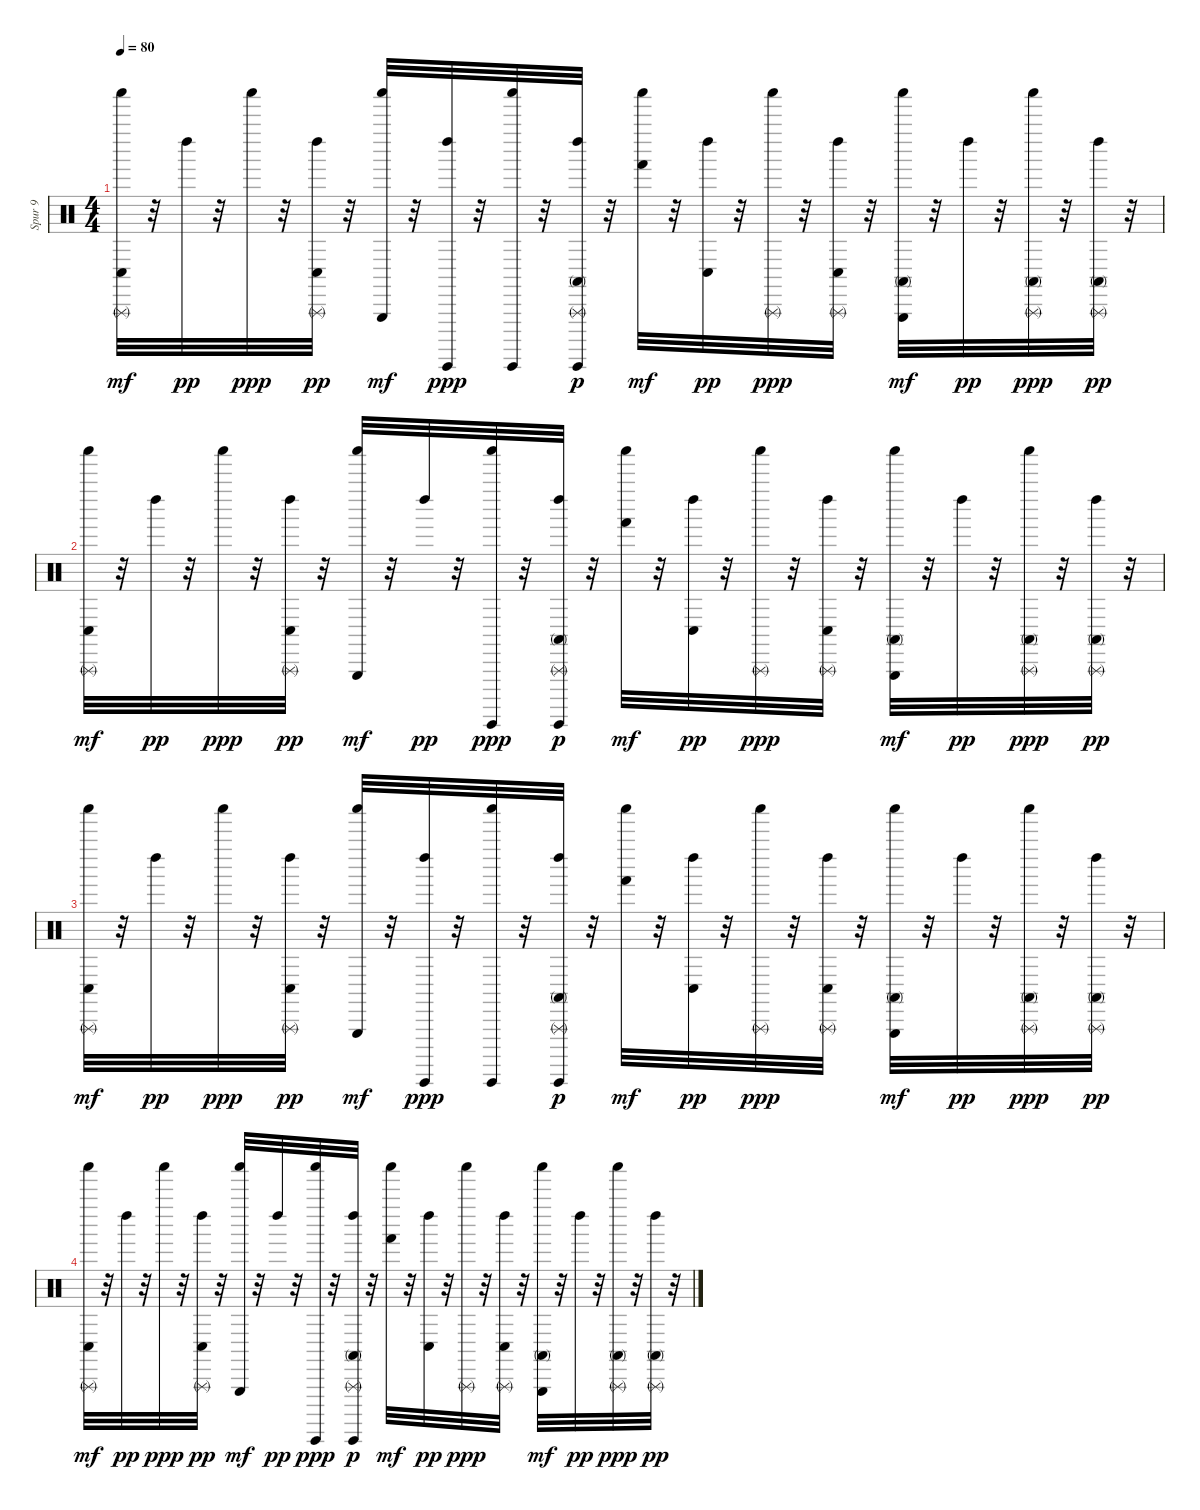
\track ("Spur 9" "Spur 9") {instrument percussion}
\staff {score}
\articulation defaults
\ts (4 4)
\tempo 80
\clef neutral
\ks c
("Conga low (hit)" "Triangle (rnute)" "Shaker (hit)").32{dy mf} r.32 "Left Maraca (hit)".32{dy pp} r.32 "Shaker (hit)".32{dy ppp} r.32 ("Conga low (hit)" "Left Maraca (hit)" "Triangle (rnute)").32{dy pp} r.32 ("Triangle (hit)" "Shaker (hit)").32{dy mf} r.32 ("Left Maraca (hit)" "Guiro (hit)").32{dy ppp} r.32 ("Guiro (hit)" "Shaker (hit)").32 r.32 ("Conga high (mute)" "Left Maraca (hit)" "Guiro (hit)" "Triangle (rnute)").32{dy p} r.32 ("Hand (hit)" "Shaker (hit)").32{dy mf} r.32 ("Conga low (hit)" "Left Maraca (hit)").32{dy pp} r.32 ("Triangle (rnute)" "Shaker (hit)").32{dy ppp} r.32 ("Conga low (hit)" "Left Maraca (hit)" "Triangle (rnute)").32 r.32 ("Conga high (mute)" "Triangle (hit)" "Shaker (hit)").32{dy mf} r.32 "Left Maraca (hit)".32{dy pp} r.32 ("Conga high (mute)" "Triangle (rnute)" "Shaker (hit)").32{dy ppp} r.32 ("Conga high (mute)" "Left Maraca (hit)" "Triangle (rnute)").32{dy pp} r.32 |
("Conga low (hit)" "Triangle (rnute)" "Shaker (hit)").32{dy mf} r.32 "Left Maraca (hit)".32{dy pp} r.32 "Shaker (hit)".32{dy ppp} r.32 ("Conga low (hit)" "Left Maraca (hit)" "Triangle (rnute)").32{dy pp} r.32 ("Triangle (hit)" "Shaker (hit)").32{dy mf} r.32 "Left Maraca (hit)".32{dy pp} r.32 ("Guiro (hit)" "Shaker (hit)").32{dy ppp} r.32 ("Conga high (mute)" "Left Maraca (hit)" "Guiro (hit)" "Triangle (rnute)").32{dy p} r.32 ("Hand (hit)" "Shaker (hit)").32{dy mf} r.32 ("Conga low (hit)" "Left Maraca (hit)").32{dy pp} r.32 ("Triangle (rnute)" "Shaker (hit)").32{dy ppp} r.32 ("Conga low (hit)" "Left Maraca (hit)" "Triangle (rnute)").32 r.32 ("Conga high (mute)" "Triangle (hit)" "Shaker (hit)").32{dy mf} r.32 "Left Maraca (hit)".32{dy pp} r.32 ("Conga high (mute)" "Triangle (rnute)" "Shaker (hit)").32{dy ppp} r.32 ("Conga high (mute)" "Left Maraca (hit)" "Triangle (rnute)").32{dy pp} r.32 |
("Conga low (hit)" "Triangle (rnute)" "Shaker (hit)").32{dy mf} r.32 "Left Maraca (hit)".32{dy pp} r.32 "Shaker (hit)".32{dy ppp} r.32 ("Conga low (hit)" "Left Maraca (hit)" "Triangle (rnute)").32{dy pp} r.32 ("Triangle (hit)" "Shaker (hit)").32{dy mf} r.32 ("Left Maraca (hit)" "Guiro (hit)").32{dy ppp} r.32 ("Guiro (hit)" "Shaker (hit)").32 r.32 ("Conga high (mute)" "Left Maraca (hit)" "Guiro (hit)" "Triangle (rnute)").32{dy p} r.32 ("Hand (hit)" "Shaker (hit)").32{dy mf} r.32 ("Conga low (hit)" "Left Maraca (hit)").32{dy pp} r.32 ("Triangle (rnute)" "Shaker (hit)").32{dy ppp} r.32 ("Conga low (hit)" "Left Maraca (hit)" "Triangle (rnute)").32 r.32 ("Conga high (mute)" "Triangle (hit)" "Shaker (hit)").32{dy mf} r.32 "Left Maraca (hit)".32{dy pp} r.32 ("Conga high (mute)" "Triangle (rnute)" "Shaker (hit)").32{dy ppp} r.32 ("Conga high (mute)" "Left Maraca (hit)" "Triangle (rnute)").32{dy pp} r.32 |
("Conga low (hit)" "Triangle (rnute)" "Shaker (hit)").32{dy mf} r.32 "Left Maraca (hit)".32{dy pp} r.32 "Shaker (hit)".32{dy ppp} r.32 ("Conga low (hit)" "Left Maraca (hit)" "Triangle (rnute)").32{dy pp} r.32 ("Triangle (hit)" "Shaker (hit)").32{dy mf} r.32 "Left Maraca (hit)".32{dy pp} r.32 ("Guiro (hit)" "Shaker (hit)").32{dy ppp} r.32 ("Conga high (mute)" "Left Maraca (hit)" "Guiro (hit)" "Triangle (rnute)").32{dy p} r.32 ("Hand (hit)" "Shaker (hit)").32{dy mf} r.32 ("Conga low (hit)" "Left Maraca (hit)").32{dy pp} r.32 ("Triangle (rnute)" "Shaker (hit)").32{dy ppp} r.32 ("Conga low (hit)" "Left Maraca (hit)" "Triangle (rnute)").32 r.32 ("Conga high (mute)" "Triangle (hit)" "Shaker (hit)").32{dy mf} r.32 "Left Maraca (hit)".32{dy pp} r.32 ("Conga high (mute)" "Triangle (rnute)" "Shaker (hit)").32{dy ppp} r.32 ("Conga high (mute)" "Left Maraca (hit)" "Triangle (rnute)").32{dy pp} r.32
